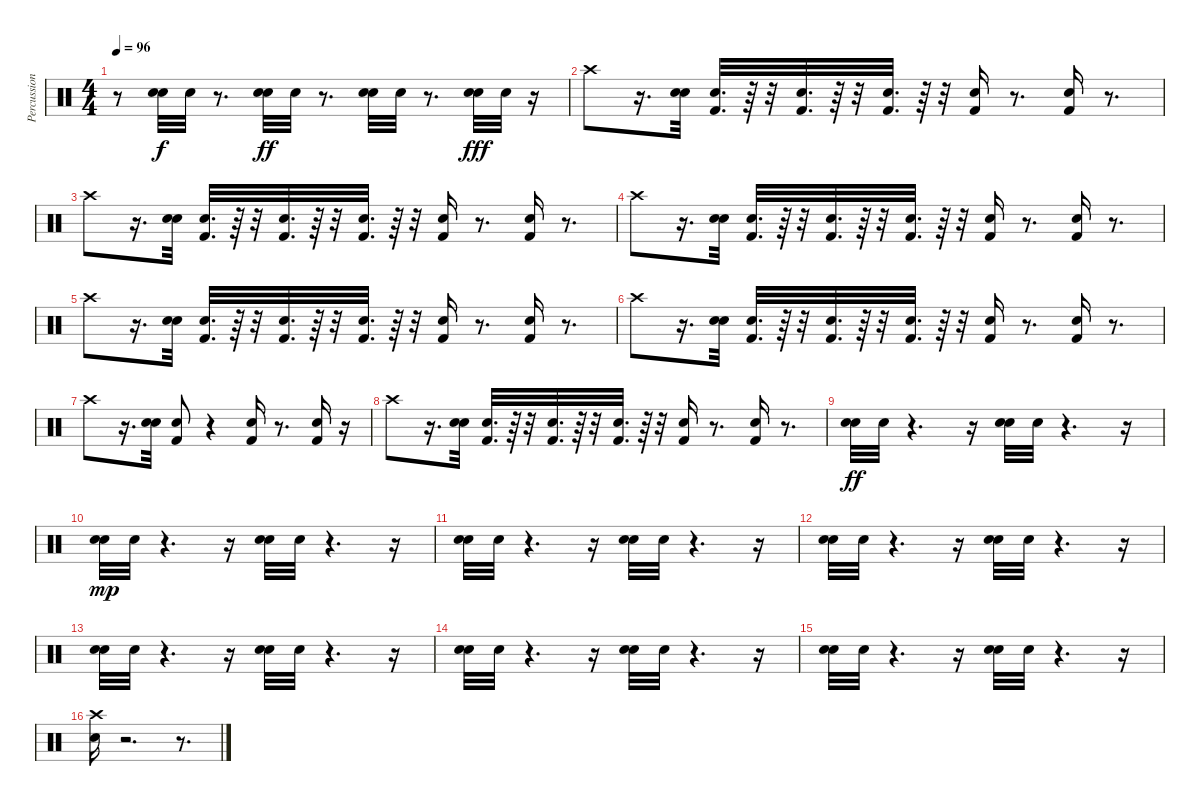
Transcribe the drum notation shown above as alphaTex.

\track ("Percussion" "Percussion") {instrument percussion}
\staff {score}
\articulation defaults
\ts (4 4)
\tempo 96
\clef neutral
\ks c
r.8{dy f} ("Snare (hit) 2" "Snare (hit) 2").32 "Snare (hit) 2".32 r.8{d} ("Snare (hit) 2" "Snare (hit) 2").32{dy ff} "Snare (hit) 2".32 r.8{d} ("Snare (hit) 2" "Snare (hit) 2").32 "Snare (hit) 2".32 r.8{d} ("Snare (hit) 2" "Snare (hit) 2").32{dy fff} "Snare (hit) 2".32 r.16 |
"Crash high (hit)".8 r.16{d} ("Snare (hit) 2" "Snare (hit) 2").32 ("Snare (hit) 2" "Kick (hit) 2").32{d} r.64 r.32 ("Snare (hit) 2" "Kick (hit) 2").32{d} r.64 r.32 ("Snare (hit) 2" "Kick (hit) 2").32{d} r.64 r.32 ("Snare (hit) 2" "Kick (hit) 2").16 r.8{d} ("Snare (hit) 2" "Kick (hit) 2").16 r.8{d} |
"Crash high (hit)".8 r.16{d} ("Snare (hit) 2" "Snare (hit) 2").32 ("Snare (hit) 2" "Kick (hit) 2").32{d} r.64 r.32 ("Snare (hit) 2" "Kick (hit) 2").32{d} r.64 r.32 ("Snare (hit) 2" "Kick (hit) 2").32{d} r.64 r.32 ("Snare (hit) 2" "Kick (hit) 2").16 r.8{d} ("Snare (hit) 2" "Kick (hit) 2").16 r.8{d} |
"Crash high (hit)".8 r.16{d} ("Snare (hit) 2" "Snare (hit) 2").32 ("Snare (hit) 2" "Kick (hit) 2").32{d} r.64 r.32 ("Snare (hit) 2" "Kick (hit) 2").32{d} r.64 r.32 ("Snare (hit) 2" "Kick (hit) 2").32{d} r.64 r.32 ("Snare (hit) 2" "Kick (hit) 2").16 r.8{d} ("Snare (hit) 2" "Kick (hit) 2").16 r.8{d} |
"Crash high (hit)".8 r.16{d} ("Snare (hit) 2" "Snare (hit) 2").32 ("Snare (hit) 2" "Kick (hit) 2").32{d} r.64 r.32 ("Snare (hit) 2" "Kick (hit) 2").32{d} r.64 r.32 ("Snare (hit) 2" "Kick (hit) 2").32{d} r.64 r.32 ("Snare (hit) 2" "Kick (hit) 2").16 r.8{d} ("Snare (hit) 2" "Kick (hit) 2").16 r.8{d} |
"Crash high (hit)".8 r.16{d} ("Snare (hit) 2" "Snare (hit) 2").32 ("Snare (hit) 2" "Kick (hit) 2").32{d} r.64 r.32 ("Snare (hit) 2" "Kick (hit) 2").32{d} r.64 r.32 ("Snare (hit) 2" "Kick (hit) 2").32{d} r.64 r.32 ("Snare (hit) 2" "Kick (hit) 2").16 r.8{d} ("Snare (hit) 2" "Kick (hit) 2").16 r.8{d} |
"Crash high (hit)".8 r.16{d} ("Snare (hit) 2" "Snare (hit) 2").32 ("Snare (hit) 2" "Kick (hit) 2").8 r.4 ("Snare (hit) 2" "Kick (hit) 2").16 r.8{d} ("Snare (hit) 2" "Kick (hit) 2").16 r.16 |
"Crash high (hit)".8 r.16{d} ("Snare (hit) 2" "Snare (hit) 2").32 ("Snare (hit) 2" "Kick (hit) 2").32{d} r.64 r.32 ("Snare (hit) 2" "Kick (hit) 2").32{d} r.64 r.32 ("Snare (hit) 2" "Kick (hit) 2").32{d} r.64 r.32 ("Snare (hit) 2" "Kick (hit) 2").16 r.8{d} ("Snare (hit) 2" "Kick (hit) 2").16 r.8{d} |
("Snare (hit) 2" "Snare (hit) 2").32{dy ff} "Snare (hit) 2".32 r.4{d} r.16 ("Snare (hit) 2" "Snare (hit) 2").32 "Snare (hit) 2".32 r.4{d} r.16 |
("Snare (hit) 2" "Snare (hit) 2").32{dy mp} "Snare (hit) 2".32 r.4{d} r.16 ("Snare (hit) 2" "Snare (hit) 2").32 "Snare (hit) 2".32 r.4{d} r.16 |
("Snare (hit) 2" "Snare (hit) 2").32 "Snare (hit) 2".32 r.4{d} r.16 ("Snare (hit) 2" "Snare (hit) 2").32 "Snare (hit) 2".32 r.4{d} r.16 |
("Snare (hit) 2" "Snare (hit) 2").32 "Snare (hit) 2".32 r.4{d} r.16 ("Snare (hit) 2" "Snare (hit) 2").32 "Snare (hit) 2".32 r.4{d} r.16 |
("Snare (hit) 2" "Snare (hit) 2").32 "Snare (hit) 2".32 r.4{d} r.16 ("Snare (hit) 2" "Snare (hit) 2").32 "Snare (hit) 2".32 r.4{d} r.16 |
("Snare (hit) 2" "Snare (hit) 2").32 "Snare (hit) 2".32 r.4{d} r.16 ("Snare (hit) 2" "Snare (hit) 2").32 "Snare (hit) 2".32 r.4{d} r.16 |
("Snare (hit) 2" "Snare (hit) 2").32 "Snare (hit) 2".32 r.4{d} r.16 ("Snare (hit) 2" "Snare (hit) 2").32 "Snare (hit) 2".32 r.4{d} r.16 |
("Crash high (hit)" "Snare (hit) 2").16 r.2{d} r.8{d}
